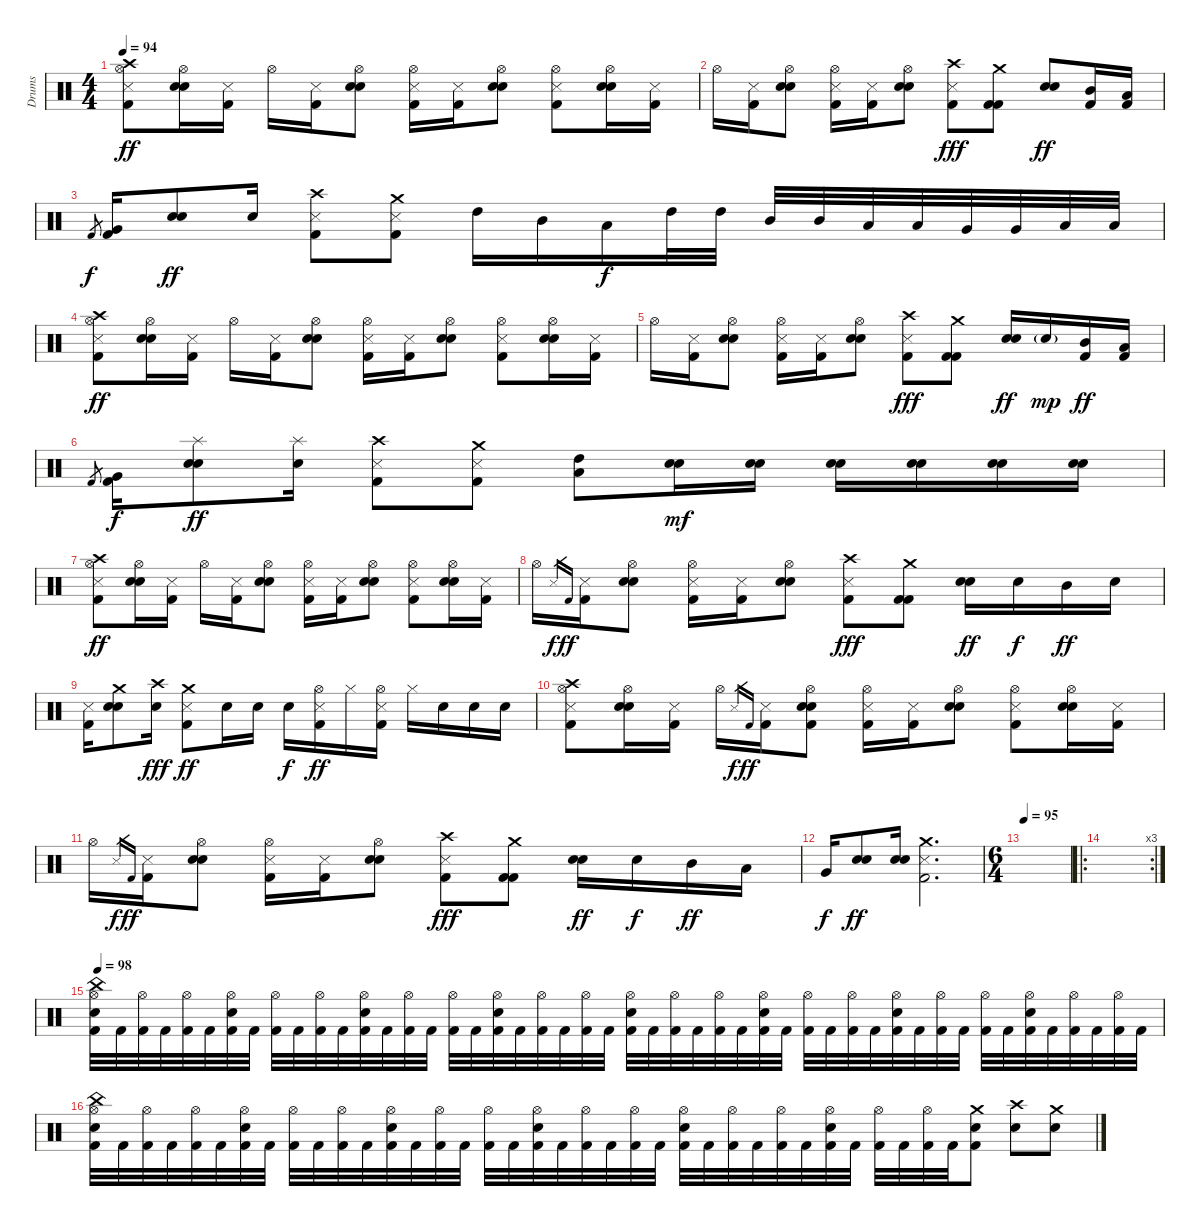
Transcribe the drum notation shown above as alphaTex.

\track ("Drums" "Drums") {instrument percussion}
\staff {score}
\articulation defaults
\ts (4 4)
\tempo 94
\clef neutral
\ks c
("Hi-Hat (open)" "Crash high (hit)" "Metronome (hit)" "Kick (hit) 2").8{dy ff} ("Hi-Hat (open)" "Electric Snare (hit)" "Metronome (bell)").16 ("Metronome (hit)" "Kick (hit) 2").16 "Hi-Hat (open)".16 ("Metronome (hit)" "Kick (hit) 2").16 ("Hi-Hat (open)" "Electric Snare (hit)" "Metronome (bell)").8 ("Hi-Hat (open)" "Metronome (hit)" "Kick (hit) 2").16 ("Metronome (hit)" "Kick (hit) 2").16 ("Hi-Hat (open)" "Electric Snare (hit)" "Metronome (bell)").8 ("Hi-Hat (open)" "Metronome (hit)" "Kick (hit) 2").8 ("Hi-Hat (open)" "Electric Snare (hit)" "Metronome (bell)").16 ("Metronome (hit)" "Kick (hit) 2").16 |
"Hi-Hat (open)".16 ("Metronome (hit)" "Kick (hit) 2").16 ("Hi-Hat (open)" "Electric Snare (hit)" "Metronome (bell)").8 ("Hi-Hat (open)" "Metronome (hit)" "Kick (hit) 2").16 ("Metronome (hit)" "Kick (hit) 2").16 ("Hi-Hat (open)" "Electric Snare (hit)" "Metronome (bell)").8 ("Crash high (hit)" "Metronome (hit)" "Kick (hit) 2").8{dy fff} ("Crash medium (hit)" "Kick (hit) 2" "Kick (hit) 2").8 ("Electric Snare (hit)" "Metronome (bell)").8{dy ff} ("Mid Tom (hit)" "Kick (hit) 2").16 ("Low Tom (hit)" "Kick (hit) 2").16 |
"Kick (hit) 2".8{gr dy f} ("Very Low Tom (hit)" "Kick (hit) 2").16 ("Electric Snare (hit)" "Metronome (bell)").8{dy ff} "Electric Snare (hit)".16 ("Crash high (hit)" "Metronome (hit)" "Kick (hit) 2").8 ("Crash medium (hit)" "Metronome (hit)" "Kick (hit) 2").8 "High Tom (hit)".16 "Mid Tom (hit)".16 "Low Tom (hit)".16{dy f} "High Tom (hit)".32 "High Tom (hit)".32 "Mid Tom (hit)".32 "Mid Tom (hit)".32 "Low Tom (hit)".32 "Low Tom (hit)".32 "Very Low Tom (hit)".32 "Very Low Tom (hit)".32 "Low Floor Tom (hit)".32 "Low Floor Tom (hit)".32 |
("Hi-Hat (open)" "Crash high (hit)" "Metronome (hit)" "Kick (hit) 2").8{dy ff} ("Hi-Hat (open)" "Electric Snare (hit)" "Metronome (bell)").16 ("Metronome (hit)" "Kick (hit) 2").16 "Hi-Hat (open)".16 ("Metronome (hit)" "Kick (hit) 2").16 ("Hi-Hat (open)" "Electric Snare (hit)" "Metronome (bell)").8 ("Hi-Hat (open)" "Metronome (hit)" "Kick (hit) 2").16 ("Metronome (hit)" "Kick (hit) 2").16 ("Hi-Hat (open)" "Electric Snare (hit)" "Metronome (bell)").8 ("Hi-Hat (open)" "Metronome (hit)" "Kick (hit) 2").8 ("Hi-Hat (open)" "Electric Snare (hit)" "Metronome (bell)").16 ("Metronome (hit)" "Kick (hit) 2").16 |
"Hi-Hat (open)".16 ("Metronome (hit)" "Kick (hit) 2").16 ("Hi-Hat (open)" "Electric Snare (hit)" "Metronome (bell)").8 ("Hi-Hat (open)" "Metronome (hit)" "Kick (hit) 2").16 ("Metronome (hit)" "Kick (hit) 2").16 ("Hi-Hat (open)" "Electric Snare (hit)" "Metronome (bell)").8 ("Crash high (hit)" "Metronome (hit)" "Kick (hit) 2").8{dy fff} ("Crash medium (hit)" "Kick (hit) 2" "Kick (hit) 2").8 ("Electric Snare (hit)" "Metronome (bell)").16{dy ff} "Electric Snare (hit)"{g}.16{dy mp} ("Mid Tom (hit)" "Kick (hit) 2").16{dy ff} ("Low Tom (hit)" "Kick (hit) 2").16 |
"Kick (hit) 2".8{gr} ("Very Low Tom (hit)" "Kick (hit) 2").16{dy f} ("Splash (hit)" "Electric Snare (hit)" "Metronome (bell)").8{dy ff} ("Splash (hit)" "Electric Snare (hit)").16 ("Crash high (hit)" "Metronome (hit)" "Kick (hit) 2").8 ("Crash medium (hit)" "Metronome (hit)" "Kick (hit) 2").8 ("Low Tom (hit)" "High Tom (hit)").8 ("Electric Snare (hit)" "Metronome (bell)").16{dy mf} ("Electric Snare (hit)" "Metronome (bell)").16 ("Electric Snare (hit)" "Metronome (bell)").16 ("Electric Snare (hit)" "Metronome (bell)").16 ("Electric Snare (hit)" "Metronome (bell)").16 ("Electric Snare (hit)" "Metronome (bell)").16 |
("Hi-Hat (open)" "Crash high (hit)" "Metronome (hit)" "Kick (hit) 2").8{dy ff} ("Hi-Hat (open)" "Electric Snare (hit)" "Metronome (bell)").16 ("Metronome (hit)" "Kick (hit) 2").16 "Hi-Hat (open)".16 ("Metronome (hit)" "Kick (hit) 2").16 ("Hi-Hat (open)" "Electric Snare (hit)" "Metronome (bell)").8 ("Hi-Hat (open)" "Metronome (hit)" "Kick (hit) 2").16 ("Metronome (hit)" "Kick (hit) 2").16 ("Hi-Hat (open)" "Electric Snare (hit)" "Metronome (bell)").8 ("Hi-Hat (open)" "Metronome (hit)" "Kick (hit) 2").8 ("Hi-Hat (open)" "Electric Snare (hit)" "Metronome (bell)").16 ("Metronome (hit)" "Kick (hit) 2").16 |
"Hi-Hat (open)".16 "Metronome (hit)".16{gr dy f} "Kick (hit) 2".16{gr dy ff} ("Metronome (hit)" "Kick (hit) 2").16 ("Hi-Hat (open)" "Electric Snare (hit)" "Metronome (bell)").8 ("Hi-Hat (open)" "Metronome (hit)" "Kick (hit) 2").16 ("Metronome (hit)" "Kick (hit) 2").16 ("Hi-Hat (open)" "Electric Snare (hit)" "Metronome (bell)").8 ("Crash high (hit)" "Metronome (hit)" "Kick (hit) 2").8{dy fff} ("Crash medium (hit)" "Kick (hit) 2" "Kick (hit) 2").8 ("Electric Snare (hit)" "Metronome (bell)").16{dy ff} "Electric Snare (hit)".16{dy f} "Mid Tom (hit)".16{dy ff} "Electric Snare (hit)".16 |
("Metronome (hit)" "Kick (hit) 2").16 ("Crash medium (hit)" "Electric Snare (hit)" "Metronome (bell)").8 ("Crash high (hit)" "Electric Snare (hit)").16{dy fff} ("Crash medium (hit)" "Metronome (hit)" "Kick (hit) 2").8{dy ff} "Electric Snare (hit)".16 "Electric Snare (hit)".16 "Electric Snare (hit)".16{dy f} ("Hi-Hat (open)" "Metronome (hit)" "Kick (hit) 2").16{dy ff} "Hi-Hat (closed)".16 ("Hi-Hat (open)" "Metronome (hit)" "Kick (hit) 2").16 "Hi-Hat (closed)".16 "Electric Snare (hit)".16 "Electric Snare (hit)".16 "Electric Snare (hit)".16 |
("Hi-Hat (open)" "Crash high (hit)" "Metronome (hit)" "Kick (hit) 2").8 ("Hi-Hat (open)" "Electric Snare (hit)" "Metronome (bell)").16 ("Metronome (hit)" "Kick (hit) 2").16 "Hi-Hat (open)".16 "Metronome (hit)".16{gr dy f} "Kick (hit) 2".16{gr dy ff} ("Metronome (hit)" "Kick (hit) 2").16 ("Hi-Hat (open)" "Electric Snare (hit)" "Metronome (bell)" "Kick (hit) 2").8 ("Hi-Hat (open)" "Metronome (hit)" "Kick (hit) 2").16 ("Metronome (hit)" "Kick (hit) 2").16 ("Hi-Hat (open)" "Electric Snare (hit)" "Metronome (bell)").8 ("Hi-Hat (open)" "Metronome (hit)" "Kick (hit) 2").8 ("Hi-Hat (open)" "Electric Snare (hit)" "Metronome (bell)").16 ("Metronome (hit)" "Kick (hit) 2").16 |
"Hi-Hat (open)".16 "Metronome (hit)".16{gr dy f} "Kick (hit) 2".16{gr dy ff} ("Metronome (hit)" "Kick (hit) 2").16 ("Hi-Hat (open)" "Electric Snare (hit)" "Metronome (bell)").8 ("Hi-Hat (open)" "Metronome (hit)" "Kick (hit) 2").16 ("Metronome (hit)" "Kick (hit) 2").16 ("Hi-Hat (open)" "Electric Snare (hit)" "Metronome (bell)").8 ("Crash high (hit)" "Metronome (hit)" "Kick (hit) 2").8{dy fff} ("Crash medium (hit)" "Kick (hit) 2" "Kick (hit) 2").8 ("Electric Snare (hit)" "Metronome (bell)").16{dy ff} "Electric Snare (hit)".16{dy f} "Mid Tom (hit)".16{dy ff} "Low Tom (hit)".16 |
"Very Low Tom (hit)".16{dy f} ("Electric Snare (hit)" "Metronome (bell)").8{dy ff} ("Electric Snare (hit)" "Metronome (bell)").16 ("Crash medium (hit)" "Metronome (hit)" "Kick (hit) 2").2{d} |
\ts (6 4)
\tempo 95
|
\ro
\rc 3
|
\tempo 98
("Hi-Hat (open)" "China (hit)" "Electric Snare (hit)" "Kick (hit) 2").32 "Kick (hit) 2".32 ("Hi-Hat (open)" "Kick (hit) 2").32 "Kick (hit) 2".32 ("Hi-Hat (open)" "Kick (hit) 2").32 "Kick (hit) 2".32 ("Hi-Hat (open)" "Electric Snare (hit)" "Kick (hit) 2").32 "Kick (hit) 2".32 ("Hi-Hat (open)" "Kick (hit) 2").32 "Kick (hit) 2".32 ("Hi-Hat (open)" "Kick (hit) 2").32 "Kick (hit) 2".32 ("Hi-Hat (open)" "Electric Snare (hit)" "Kick (hit) 2").32 "Kick (hit) 2".32 ("Hi-Hat (open)" "Kick (hit) 2").32 "Kick (hit) 2".32 ("Hi-Hat (open)" "Kick (hit) 2").32 "Kick (hit) 2".32 ("Hi-Hat (open)" "Electric Snare (hit)" "Kick (hit) 2").32 "Kick (hit) 2".32 ("Hi-Hat (open)" "Kick (hit) 2").32 "Kick (hit) 2".32 ("Hi-Hat (open)" "Kick (hit) 2").32 "Kick (hit) 2".32 ("Hi-Hat (open)" "Electric Snare (hit)" "Kick (hit) 2").32 "Kick (hit) 2".32 ("Hi-Hat (open)" "Kick (hit) 2").32 "Kick (hit) 2".32 ("Hi-Hat (open)" "Kick (hit) 2").32 "Kick (hit) 2".32 ("Hi-Hat (open)" "Electric Snare (hit)" "Kick (hit) 2").32 "Kick (hit) 2".32 ("Hi-Hat (open)" "Kick (hit) 2").32 "Kick (hit) 2".32 ("Hi-Hat (open)" "Kick (hit) 2").32 "Kick (hit) 2".32 ("Hi-Hat (open)" "Electric Snare (hit)" "Kick (hit) 2").32 "Kick (hit) 2".32 ("Hi-Hat (open)" "Kick (hit) 2").32 "Kick (hit) 2".32 ("Hi-Hat (open)" "Kick (hit) 2").32 "Kick (hit) 2".32 ("Hi-Hat (open)" "Electric Snare (hit)" "Kick (hit) 2").32 "Kick (hit) 2".32 ("Hi-Hat (open)" "Kick (hit) 2").32 "Kick (hit) 2".32 ("Hi-Hat (open)" "Kick (hit) 2").32 "Kick (hit) 2".32 |
("Hi-Hat (open)" "China (hit)" "Electric Snare (hit)" "Kick (hit) 2").32 "Kick (hit) 2".32 ("Hi-Hat (open)" "Kick (hit) 2").32 "Kick (hit) 2".32 ("Hi-Hat (open)" "Kick (hit) 2").32 "Kick (hit) 2".32 ("Hi-Hat (open)" "Electric Snare (hit)" "Kick (hit) 2").32 "Kick (hit) 2".32 ("Hi-Hat (open)" "Kick (hit) 2").32 "Kick (hit) 2".32 ("Hi-Hat (open)" "Kick (hit) 2").32 "Kick (hit) 2".32 ("Hi-Hat (open)" "Electric Snare (hit)" "Kick (hit) 2").32 "Kick (hit) 2".32 ("Hi-Hat (open)" "Kick (hit) 2").32 "Kick (hit) 2".32 ("Hi-Hat (open)" "Kick (hit) 2").32 "Kick (hit) 2".32 ("Hi-Hat (open)" "Electric Snare (hit)" "Kick (hit) 2").32 "Kick (hit) 2".32 ("Hi-Hat (open)" "Kick (hit) 2").32 "Kick (hit) 2".32 ("Hi-Hat (open)" "Kick (hit) 2").32 "Kick (hit) 2".32 ("Hi-Hat (open)" "Electric Snare (hit)" "Kick (hit) 2").32 "Kick (hit) 2".32 ("Hi-Hat (open)" "Kick (hit) 2").32 "Kick (hit) 2".32 ("Hi-Hat (open)" "Kick (hit) 2").32 "Kick (hit) 2".32 ("Hi-Hat (open)" "Electric Snare (hit)" "Kick (hit) 2").32 "Kick (hit) 2".32 ("Hi-Hat (open)" "Kick (hit) 2").32 "Kick (hit) 2".32 ("Hi-Hat (open)" "Kick (hit) 2").32 "Kick (hit) 2".32 ("Crash medium (hit)" "Electric Snare (hit)" "Kick (hit) 2").8 ("Crash high (hit)" "Electric Snare (hit)").8 ("Crash medium (hit)" "Electric Snare (hit)").8
